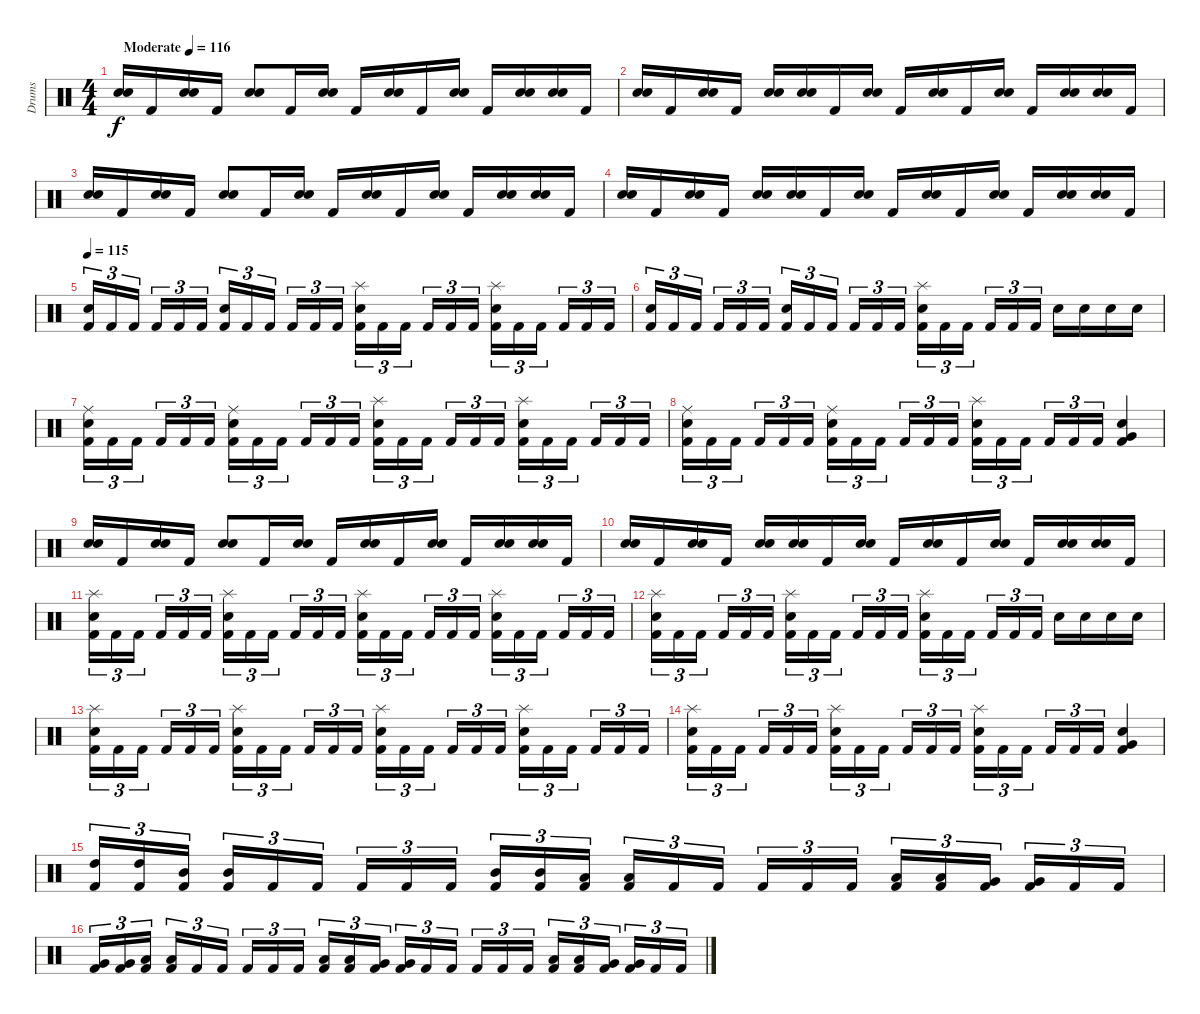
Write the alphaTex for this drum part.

\track ("Drums" "Drums") {instrument percussion}
\staff {score}
\articulation defaults
\ts (4 4)
\tempo (116 "Moderate")
\clef neutral
\ks c
("Snare (hit) 2" "Electric Snare (hit)").16{dy f} "Kick (hit) 2".16 ("Snare (hit) 2" "Electric Snare (hit)").16 "Kick (hit) 2".16 ("Snare (hit) 2" "Electric Snare (hit)").8 "Kick (hit) 2".16 ("Snare (hit) 2" "Electric Snare (hit)").16 "Kick (hit) 2".16 ("Snare (hit) 2" "Electric Snare (hit)").16 "Kick (hit) 2".16 ("Snare (hit) 2" "Electric Snare (hit)").16 "Kick (hit) 2".16 ("Snare (hit) 2" "Electric Snare (hit)").16 ("Snare (hit) 2" "Electric Snare (hit)").16 "Kick (hit) 2".16 |
("Snare (hit) 2" "Electric Snare (hit)").16 "Kick (hit) 2".16 ("Snare (hit) 2" "Electric Snare (hit)").16 "Kick (hit) 2".16 ("Snare (hit) 2" "Electric Snare (hit)").16 ("Snare (hit) 2" "Electric Snare (hit)").16 "Kick (hit) 2".16 ("Snare (hit) 2" "Electric Snare (hit)").16 "Kick (hit) 2".16 ("Snare (hit) 2" "Electric Snare (hit)").16 "Kick (hit) 2".16 ("Snare (hit) 2" "Electric Snare (hit)").16 "Kick (hit) 2".16 ("Snare (hit) 2" "Electric Snare (hit)").16 ("Snare (hit) 2" "Electric Snare (hit)").16 "Kick (hit) 2".16 |
("Snare (hit) 2" "Electric Snare (hit)").16 "Kick (hit) 2".16 ("Snare (hit) 2" "Electric Snare (hit)").16 "Kick (hit) 2".16 ("Snare (hit) 2" "Electric Snare (hit)").8 "Kick (hit) 2".16 ("Snare (hit) 2" "Electric Snare (hit)").16 "Kick (hit) 2".16 ("Snare (hit) 2" "Electric Snare (hit)").16 "Kick (hit) 2".16 ("Snare (hit) 2" "Electric Snare (hit)").16 "Kick (hit) 2".16 ("Snare (hit) 2" "Electric Snare (hit)").16 ("Snare (hit) 2" "Electric Snare (hit)").16 "Kick (hit) 2".16 |
("Snare (hit) 2" "Electric Snare (hit)").16 "Kick (hit) 2".16 ("Snare (hit) 2" "Electric Snare (hit)").16 "Kick (hit) 2".16 ("Snare (hit) 2" "Electric Snare (hit)").16 ("Snare (hit) 2" "Electric Snare (hit)").16 "Kick (hit) 2".16 ("Snare (hit) 2" "Electric Snare (hit)").16 "Kick (hit) 2".16 ("Snare (hit) 2" "Electric Snare (hit)").16 "Kick (hit) 2".16 ("Snare (hit) 2" "Electric Snare (hit)").16 "Kick (hit) 2".16 ("Snare (hit) 2" "Electric Snare (hit)").16 ("Snare (hit) 2" "Electric Snare (hit)").16 "Kick (hit) 2".16 |
\tempo 115
("Snare (hit) 2" "Kick (hit) 2").16{tu (3 2)} "Kick (hit) 2".16{tu (3 2)} "Kick (hit) 2".16{tu (3 2) beam splitsecondary} "Kick (hit) 2".16{tu (3 2)} "Kick (hit) 2".16{tu (3 2)} "Kick (hit) 2".16{tu (3 2)} ("Snare (hit) 2" "Kick (hit) 2").16{tu (3 2)} "Kick (hit) 2".16{tu (3 2)} "Kick (hit) 2".16{tu (3 2) beam splitsecondary} "Kick (hit) 2".16{tu (3 2)} "Kick (hit) 2".16{tu (3 2)} "Kick (hit) 2".16{tu (3 2)} ("Splash (hit)" "Snare (hit) 2" "Kick (hit) 2").16{tu (3 2)} "Kick (hit) 2".16{tu (3 2)} "Kick (hit) 2".16{tu (3 2) beam splitsecondary} "Kick (hit) 2".16{tu (3 2)} "Kick (hit) 2".16{tu (3 2)} "Kick (hit) 2".16{tu (3 2)} ("Splash (hit)" "Snare (hit) 2" "Kick (hit) 2").16{tu (3 2)} "Kick (hit) 2".16{tu (3 2)} "Kick (hit) 2".16{tu (3 2) beam splitsecondary} "Kick (hit) 2".16{tu (3 2)} "Kick (hit) 2".16{tu (3 2)} "Kick (hit) 2".16{tu (3 2)} |
("Snare (hit) 2" "Kick (hit) 2").16{tu (3 2)} "Kick (hit) 2".16{tu (3 2)} "Kick (hit) 2".16{tu (3 2) beam splitsecondary} "Kick (hit) 2".16{tu (3 2)} "Kick (hit) 2".16{tu (3 2)} "Kick (hit) 2".16{tu (3 2)} ("Snare (hit) 2" "Kick (hit) 2").16{tu (3 2)} "Kick (hit) 2".16{tu (3 2)} "Kick (hit) 2".16{tu (3 2) beam splitsecondary} "Kick (hit) 2".16{tu (3 2)} "Kick (hit) 2".16{tu (3 2)} "Kick (hit) 2".16{tu (3 2)} ("Splash (hit)" "Snare (hit) 2" "Kick (hit) 2").16{tu (3 2)} "Kick (hit) 2".16{tu (3 2)} "Kick (hit) 2".16{tu (3 2) beam splitsecondary} "Kick (hit) 2".16{tu (3 2)} "Kick (hit) 2".16{tu (3 2)} "Kick (hit) 2".16{tu (3 2)} "Snare (hit) 2".16 "Snare (hit) 2".16 "Snare (hit) 2".16 "Snare (hit) 2".16 |
("Ride (middle)" "Snare (hit) 2" "Kick (hit) 2").16{tu (3 2)} "Kick (hit) 2".16{tu (3 2)} "Kick (hit) 2".16{tu (3 2) beam splitsecondary} "Kick (hit) 2".16{tu (3 2)} "Kick (hit) 2".16{tu (3 2)} "Kick (hit) 2".16{tu (3 2)} ("Ride (middle)" "Snare (hit) 2" "Kick (hit) 2").16{tu (3 2)} "Kick (hit) 2".16{tu (3 2)} "Kick (hit) 2".16{tu (3 2) beam splitsecondary} "Kick (hit) 2".16{tu (3 2)} "Kick (hit) 2".16{tu (3 2)} "Kick (hit) 2".16{tu (3 2)} ("Splash (hit)" "Snare (hit) 2" "Kick (hit) 2").16{tu (3 2)} "Kick (hit) 2".16{tu (3 2)} "Kick (hit) 2".16{tu (3 2) beam splitsecondary} "Kick (hit) 2".16{tu (3 2)} "Kick (hit) 2".16{tu (3 2)} "Kick (hit) 2".16{tu (3 2)} ("Splash (hit)" "Snare (hit) 2" "Kick (hit) 2").16{tu (3 2)} "Kick (hit) 2".16{tu (3 2)} "Kick (hit) 2".16{tu (3 2) beam splitsecondary} "Kick (hit) 2".16{tu (3 2)} "Kick (hit) 2".16{tu (3 2)} "Kick (hit) 2".16{tu (3 2)} |
("Ride (middle)" "Snare (hit) 2" "Kick (hit) 2").16{tu (3 2)} "Kick (hit) 2".16{tu (3 2)} "Kick (hit) 2".16{tu (3 2) beam splitsecondary} "Kick (hit) 2".16{tu (3 2)} "Kick (hit) 2".16{tu (3 2)} "Kick (hit) 2".16{tu (3 2)} ("Ride (middle)" "Snare (hit) 2" "Kick (hit) 2").16{tu (3 2)} "Kick (hit) 2".16{tu (3 2)} "Kick (hit) 2".16{tu (3 2) beam splitsecondary} "Kick (hit) 2".16{tu (3 2)} "Kick (hit) 2".16{tu (3 2)} "Kick (hit) 2".16{tu (3 2)} ("Splash (hit)" "Snare (hit) 2" "Kick (hit) 2").16{tu (3 2)} "Kick (hit) 2".16{tu (3 2)} "Kick (hit) 2".16{tu (3 2) beam splitsecondary} "Kick (hit) 2".16{tu (3 2)} "Kick (hit) 2".16{tu (3 2)} "Kick (hit) 2".16{tu (3 2)} ("Very Low Tom (hit)" "Snare (hit) 2" "Kick (hit) 2").4 |
("Snare (hit) 2" "Electric Snare (hit)").16 "Kick (hit) 2".16 ("Snare (hit) 2" "Electric Snare (hit)").16 "Kick (hit) 2".16 ("Snare (hit) 2" "Electric Snare (hit)").8 "Kick (hit) 2".16 ("Snare (hit) 2" "Electric Snare (hit)").16 "Kick (hit) 2".16 ("Snare (hit) 2" "Electric Snare (hit)").16 "Kick (hit) 2".16 ("Snare (hit) 2" "Electric Snare (hit)").16 "Kick (hit) 2".16 ("Snare (hit) 2" "Electric Snare (hit)").16 ("Snare (hit) 2" "Electric Snare (hit)").16 "Kick (hit) 2".16 |
("Snare (hit) 2" "Electric Snare (hit)").16 "Kick (hit) 2".16 ("Snare (hit) 2" "Electric Snare (hit)").16 "Kick (hit) 2".16 ("Snare (hit) 2" "Electric Snare (hit)").16 ("Snare (hit) 2" "Electric Snare (hit)").16 "Kick (hit) 2".16 ("Snare (hit) 2" "Electric Snare (hit)").16 "Kick (hit) 2".16 ("Snare (hit) 2" "Electric Snare (hit)").16 "Kick (hit) 2".16 ("Snare (hit) 2" "Electric Snare (hit)").16 "Kick (hit) 2".16 ("Snare (hit) 2" "Electric Snare (hit)").16 ("Snare (hit) 2" "Electric Snare (hit)").16 "Kick (hit) 2".16 |
("Splash (hit)" "Snare (hit) 2" "Kick (hit) 2").16{tu (3 2)} "Kick (hit) 2".16{tu (3 2)} "Kick (hit) 2".16{tu (3 2) beam splitsecondary} "Kick (hit) 2".16{tu (3 2)} "Kick (hit) 2".16{tu (3 2)} "Kick (hit) 2".16{tu (3 2)} ("Splash (hit)" "Snare (hit) 2" "Kick (hit) 2").16{tu (3 2)} "Kick (hit) 2".16{tu (3 2)} "Kick (hit) 2".16{tu (3 2) beam splitsecondary} "Kick (hit) 2".16{tu (3 2)} "Kick (hit) 2".16{tu (3 2)} "Kick (hit) 2".16{tu (3 2)} ("Splash (hit)" "Snare (hit) 2" "Kick (hit) 2").16{tu (3 2)} "Kick (hit) 2".16{tu (3 2)} "Kick (hit) 2".16{tu (3 2) beam splitsecondary} "Kick (hit) 2".16{tu (3 2)} "Kick (hit) 2".16{tu (3 2)} "Kick (hit) 2".16{tu (3 2)} ("Splash (hit)" "Snare (hit) 2" "Kick (hit) 2").16{tu (3 2)} "Kick (hit) 2".16{tu (3 2)} "Kick (hit) 2".16{tu (3 2) beam splitsecondary} "Kick (hit) 2".16{tu (3 2)} "Kick (hit) 2".16{tu (3 2)} "Kick (hit) 2".16{tu (3 2)} |
("Splash (hit)" "Snare (hit) 2" "Kick (hit) 2").16{tu (3 2)} "Kick (hit) 2".16{tu (3 2)} "Kick (hit) 2".16{tu (3 2) beam splitsecondary} "Kick (hit) 2".16{tu (3 2)} "Kick (hit) 2".16{tu (3 2)} "Kick (hit) 2".16{tu (3 2)} ("Splash (hit)" "Snare (hit) 2" "Kick (hit) 2").16{tu (3 2)} "Kick (hit) 2".16{tu (3 2)} "Kick (hit) 2".16{tu (3 2) beam splitsecondary} "Kick (hit) 2".16{tu (3 2)} "Kick (hit) 2".16{tu (3 2)} "Kick (hit) 2".16{tu (3 2)} ("Splash (hit)" "Snare (hit) 2" "Kick (hit) 2").16{tu (3 2)} "Kick (hit) 2".16{tu (3 2)} "Kick (hit) 2".16{tu (3 2) beam splitsecondary} "Kick (hit) 2".16{tu (3 2)} "Kick (hit) 2".16{tu (3 2)} "Kick (hit) 2".16{tu (3 2)} "Snare (hit) 2".16 "Snare (hit) 2".16 "Snare (hit) 2".16 "Snare (hit) 2".16 |
("Splash (hit)" "Snare (hit) 2" "Kick (hit) 2").16{tu (3 2)} "Kick (hit) 2".16{tu (3 2)} "Kick (hit) 2".16{tu (3 2) beam splitsecondary} "Kick (hit) 2".16{tu (3 2)} "Kick (hit) 2".16{tu (3 2)} "Kick (hit) 2".16{tu (3 2)} ("Splash (hit)" "Snare (hit) 2" "Kick (hit) 2").16{tu (3 2)} "Kick (hit) 2".16{tu (3 2)} "Kick (hit) 2".16{tu (3 2) beam splitsecondary} "Kick (hit) 2".16{tu (3 2)} "Kick (hit) 2".16{tu (3 2)} "Kick (hit) 2".16{tu (3 2)} ("Splash (hit)" "Snare (hit) 2" "Kick (hit) 2").16{tu (3 2)} "Kick (hit) 2".16{tu (3 2)} "Kick (hit) 2".16{tu (3 2) beam splitsecondary} "Kick (hit) 2".16{tu (3 2)} "Kick (hit) 2".16{tu (3 2)} "Kick (hit) 2".16{tu (3 2)} ("Splash (hit)" "Snare (hit) 2" "Kick (hit) 2").16{tu (3 2)} "Kick (hit) 2".16{tu (3 2)} "Kick (hit) 2".16{tu (3 2) beam splitsecondary} "Kick (hit) 2".16{tu (3 2)} "Kick (hit) 2".16{tu (3 2)} "Kick (hit) 2".16{tu (3 2)} |
("Splash (hit)" "Snare (hit) 2" "Kick (hit) 2").16{tu (3 2)} "Kick (hit) 2".16{tu (3 2)} "Kick (hit) 2".16{tu (3 2) beam splitsecondary} "Kick (hit) 2".16{tu (3 2)} "Kick (hit) 2".16{tu (3 2)} "Kick (hit) 2".16{tu (3 2)} ("Splash (hit)" "Snare (hit) 2" "Kick (hit) 2").16{tu (3 2)} "Kick (hit) 2".16{tu (3 2)} "Kick (hit) 2".16{tu (3 2) beam splitsecondary} "Kick (hit) 2".16{tu (3 2)} "Kick (hit) 2".16{tu (3 2)} "Kick (hit) 2".16{tu (3 2)} ("Splash (hit)" "Snare (hit) 2" "Kick (hit) 2").16{tu (3 2)} "Kick (hit) 2".16{tu (3 2)} "Kick (hit) 2".16{tu (3 2) beam splitsecondary} "Kick (hit) 2".16{tu (3 2)} "Kick (hit) 2".16{tu (3 2)} "Kick (hit) 2".16{tu (3 2)} ("Very Low Tom (hit)" "Snare (hit) 2" "Kick (hit) 2").4 |
("High Tom (hit)" "Kick (hit) 2").16{tu (3 2)} ("High Tom (hit)" "Kick (hit) 2").16{tu (3 2)} ("Mid Tom (hit)" "Kick (hit) 2").16{tu (3 2) beam splitsecondary} ("Mid Tom (hit)" "Kick (hit) 2").16{tu (3 2)} "Kick (hit) 2".16{tu (3 2)} "Kick (hit) 2".16{tu (3 2)} "Kick (hit) 2".16{tu (3 2)} "Kick (hit) 2".16{tu (3 2)} "Kick (hit) 2".16{tu (3 2) beam splitsecondary} ("Mid Tom (hit)" "Kick (hit) 2").16{tu (3 2)} ("Mid Tom (hit)" "Kick (hit) 2").16{tu (3 2)} ("Low Tom (hit)" "Kick (hit) 2").16{tu (3 2)} ("Low Tom (hit)" "Kick (hit) 2").16{tu (3 2)} "Kick (hit) 2".16{tu (3 2)} "Kick (hit) 2".16{tu (3 2) beam splitsecondary} "Kick (hit) 2".16{tu (3 2)} "Kick (hit) 2".16{tu (3 2)} "Kick (hit) 2".16{tu (3 2)} ("Low Tom (hit)" "Kick (hit) 2").16{tu (3 2)} ("Low Tom (hit)" "Kick (hit) 2").16{tu (3 2)} ("Very Low Tom (hit)" "Kick (hit) 2").16{tu (3 2) beam splitsecondary} ("Very Low Tom (hit)" "Kick (hit) 2").16{tu (3 2)} "Kick (hit) 2".16{tu (3 2)} "Kick (hit) 2".16{tu (3 2)} |
("Very Low Tom (hit)" "Kick (hit) 2").16{tu (3 2)} ("Very Low Tom (hit)" "Kick (hit) 2").16{tu (3 2)} ("Low Floor Tom (hit)" "Kick (hit) 2").16{tu (3 2) beam splitsecondary} ("Low Floor Tom (hit)" "Kick (hit) 2").16{tu (3 2)} "Kick (hit) 2".16{tu (3 2)} "Kick (hit) 2".16{tu (3 2)} "Kick (hit) 2".16{tu (3 2)} "Kick (hit) 2".16{tu (3 2)} "Kick (hit) 2".16{tu (3 2) beam splitsecondary} ("Low Tom (hit)" "Kick (hit) 2").16{tu (3 2)} ("Low Tom (hit)" "Kick (hit) 2").16{tu (3 2)} ("Very Low Tom (hit)" "Kick (hit) 2").16{tu (3 2)} ("Very Low Tom (hit)" "Kick (hit) 2").16{tu (3 2)} "Kick (hit) 2".16{tu (3 2)} "Kick (hit) 2".16{tu (3 2) beam splitsecondary} "Kick (hit) 2".16{tu (3 2)} "Kick (hit) 2".16{tu (3 2)} "Kick (hit) 2".16{tu (3 2)} ("Low Tom (hit)" "Kick (hit) 2").16{tu (3 2)} ("Low Tom (hit)" "Kick (hit) 2").16{tu (3 2)} ("Very Low Tom (hit)" "Kick (hit) 2").16{tu (3 2) beam splitsecondary} ("Very Low Tom (hit)" "Kick (hit) 2").16{tu (3 2)} "Kick (hit) 2".16{tu (3 2)} "Kick (hit) 2".16{tu (3 2)}
